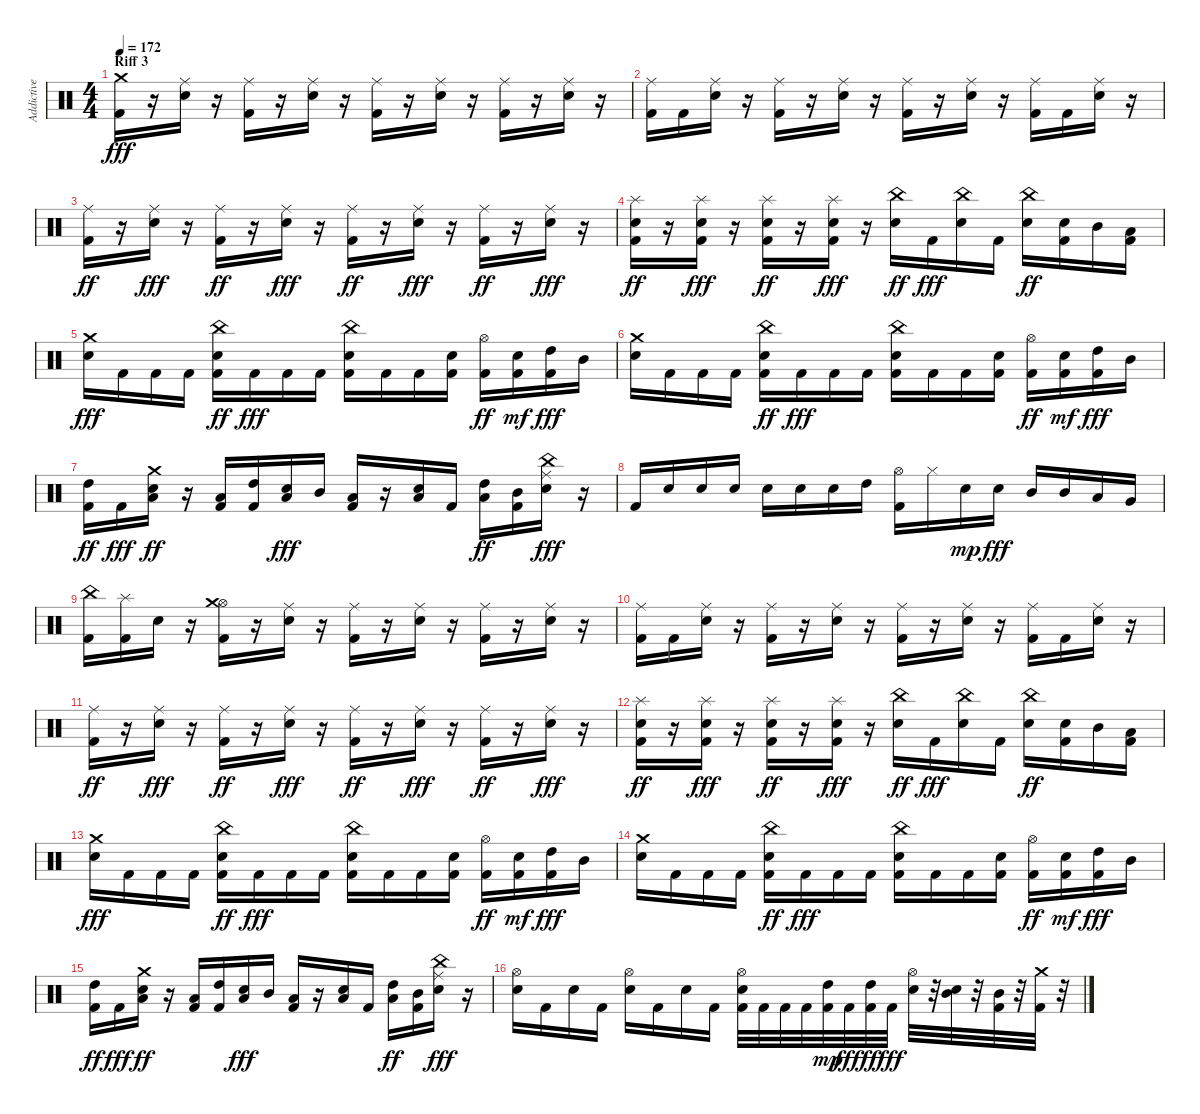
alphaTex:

\track ("Addictive" "Addictive") {instrument percussion}
\staff {score}
\articulation defaults
\ts (4 4)
\section ("" "Riff 3")
\tempo 172
\clef neutral
\ks c
("Kick (hit) 2" "Crash medium (hit)").16{dy fff} r.16 ("Snare (hit) 2" "Ride (middle)").16 r.16 ("Kick (hit) 2" "Ride (middle)").16 r.16 ("Snare (hit) 2" "Ride (middle)").16 r.16 ("Kick (hit) 2" "Ride (middle)").16 r.16 ("Snare (hit) 2" "Ride (middle)").16 r.16 ("Kick (hit) 2" "Ride (middle)").16 r.16 ("Snare (hit) 2" "Ride (middle)").16 r.16 |
("Kick (hit) 2" "Ride (middle)").16 "Kick (hit) 2".16 ("Snare (hit) 2" "Ride (middle)").16 r.16 ("Kick (hit) 2" "Ride (middle)").16 r.16 ("Snare (hit) 2" "Ride (middle)").16 r.16 ("Kick (hit) 2" "Ride (middle)").16 r.16 ("Snare (hit) 2" "Ride (middle)").16 r.16 ("Kick (hit) 2" "Ride (middle)").16 "Kick (hit) 2".16 ("Snare (hit) 2" "Ride (middle)").16 r.16 |
("Kick (hit) 2" "Ride (middle)").16{dy ff} r.16 ("Snare (hit) 2" "Ride (middle)").16{dy fff} r.16 ("Kick (hit) 2" "Ride (middle)").16{dy ff} r.16 ("Snare (hit) 2" "Ride (middle)").16{dy fff} r.16 ("Kick (hit) 2" "Ride (middle)").16{dy ff} r.16 ("Snare (hit) 2" "Ride (middle)").16{dy fff} r.16 ("Kick (hit) 2" "Ride (middle)").16{dy ff} r.16 ("Snare (hit) 2" "Ride (middle)").16{dy fff} r.16 |
("Kick (hit) 2" "Snare (hit) 2" "Splash (hit)").16{dy ff} r.16 ("Kick (hit) 2" "Snare (hit) 2" "Splash (hit)").16{dy fff} r.16 ("Kick (hit) 2" "Snare (hit) 2" "Splash (hit)").16{dy ff} r.16 ("Kick (hit) 2" "Snare (hit) 2" "Splash (hit)").16{dy fff} r.16 ("Snare (hit) 2" "China (hit)").16{dy ff} "Kick (hit) 2".16{dy fff} ("Snare (hit) 2" "China (hit)").16 "Kick (hit) 2".16 ("Snare (hit) 2" "China (hit)").16{dy ff} ("Kick (hit) 2" "Snare (hit) 2").16 "Mid Tom (hit)".16 ("Kick (hit) 2" "Low Tom (hit)").16 |
("Snare (hit) 2" "Crash medium (hit)").16{dy fff} "Kick (hit) 2".16 "Kick (hit) 2".16 "Kick (hit) 2".16 ("Kick (hit) 2" "Snare (hit) 2" "China (hit)").16{dy ff} "Kick (hit) 2".16{dy fff} "Kick (hit) 2".16 "Kick (hit) 2".16 ("Kick (hit) 2" "Snare (hit) 2" "China (hit)").16 "Kick (hit) 2".16 "Kick (hit) 2".16 ("Kick (hit) 2" "Snare (hit) 2").16 ("Kick (hit) 2" "Hi-Hat (open)").16{dy ff} ("Kick (hit) 2" "Snare (hit) 2").16{dy mf} ("Kick (hit) 2" "High Tom (hit)").16{dy fff} "Mid Tom (hit)".16 |
("Snare (hit) 2" "Crash medium (hit)").16 "Kick (hit) 2".16 "Kick (hit) 2".16 "Kick (hit) 2".16 ("Kick (hit) 2" "Snare (hit) 2" "China (hit)").16{dy ff} "Kick (hit) 2".16{dy fff} "Kick (hit) 2".16 "Kick (hit) 2".16 ("Kick (hit) 2" "Snare (hit) 2" "China (hit)").16 "Kick (hit) 2".16 "Kick (hit) 2".16 ("Kick (hit) 2" "Snare (hit) 2").16 ("Kick (hit) 2" "Hi-Hat (open)").16{dy ff} ("Kick (hit) 2" "Snare (hit) 2").16{dy mf} ("Kick (hit) 2" "High Tom (hit)").16{dy fff} "Mid Tom (hit)".16 |
("Kick (hit) 2" "High Tom (hit)").16{dy ff} "Kick (hit) 2".16{dy fff} ("Snare (hit) 2" "Low Tom (hit)" "Crash medium (hit)").16{dy ff} r.16 ("Kick (hit) 2" "Low Tom (hit)").16 ("Kick (hit) 2" "High Tom (hit)").16 ("Snare (hit) 2" "Low Tom (hit)").16{dy fff} "Mid Tom (hit)".16 ("Kick (hit) 2" "Low Tom (hit)").16 r.16 ("Snare (hit) 2" "Low Tom (hit)").16 "Kick (hit) 2".16 ("Low Tom (hit)" "High Tom (hit)").16{dy ff} ("Kick (hit) 2" "Mid Tom (hit)").16 ("Snare (hit) 2" "Ride (middle)" "China (hit)").16{dy fff} r.16 |
"Kick (hit) 2".16 "Snare (hit) 2".16 "Snare (hit) 2".16 "Snare (hit) 2".16 "Snare (hit) 2".16 "Snare (hit) 2".16 "Snare (hit) 2".16 "High Tom (hit)".16 ("Kick (hit) 2" "Hi-Hat (open)").16 "Hi-Hat (closed)".16 "Snare (hit) 2".16{dy mp} "Snare (hit) 2".16{dy fff} "Mid Tom (hit)".16 "Mid Tom (hit)".16 "Low Tom (hit)".16 "Very Low Tom (hit)".16 |
("Kick (hit) 2" "China (hit)").16 ("Kick (hit) 2" "Splash (hit)").16 "Snare (hit) 2".16 r.16 ("Kick (hit) 2" "Hi-Hat (open)" "Crash medium (hit)").16 r.16 ("Snare (hit) 2" "Ride (middle)").16 r.16 ("Kick (hit) 2" "Ride (middle)").16 r.16 ("Snare (hit) 2" "Ride (middle)").16 r.16 ("Kick (hit) 2" "Ride (middle)").16 r.16 ("Snare (hit) 2" "Ride (middle)").16 r.16 |
("Kick (hit) 2" "Ride (middle)").16 "Kick (hit) 2".16 ("Snare (hit) 2" "Ride (middle)").16 r.16 ("Kick (hit) 2" "Ride (middle)").16 r.16 ("Snare (hit) 2" "Ride (middle)").16 r.16 ("Kick (hit) 2" "Ride (middle)").16 r.16 ("Snare (hit) 2" "Ride (middle)").16 r.16 ("Kick (hit) 2" "Ride (middle)").16 "Kick (hit) 2".16 ("Snare (hit) 2" "Ride (middle)").16 r.16 |
("Kick (hit) 2" "Ride (middle)").16{dy ff} r.16 ("Snare (hit) 2" "Ride (middle)").16{dy fff} r.16 ("Kick (hit) 2" "Ride (middle)").16{dy ff} r.16 ("Snare (hit) 2" "Ride (middle)").16{dy fff} r.16 ("Kick (hit) 2" "Ride (middle)").16{dy ff} r.16 ("Snare (hit) 2" "Ride (middle)").16{dy fff} r.16 ("Kick (hit) 2" "Ride (middle)").16{dy ff} r.16 ("Snare (hit) 2" "Ride (middle)").16{dy fff} r.16 |
("Kick (hit) 2" "Snare (hit) 2" "Splash (hit)").16{dy ff} r.16 ("Kick (hit) 2" "Snare (hit) 2" "Splash (hit)").16{dy fff} r.16 ("Kick (hit) 2" "Snare (hit) 2" "Splash (hit)").16{dy ff} r.16 ("Kick (hit) 2" "Snare (hit) 2" "Splash (hit)").16{dy fff} r.16 ("Snare (hit) 2" "China (hit)").16{dy ff} "Kick (hit) 2".16{dy fff} ("Snare (hit) 2" "China (hit)").16 "Kick (hit) 2".16 ("Snare (hit) 2" "China (hit)").16{dy ff} ("Kick (hit) 2" "Snare (hit) 2").16 "Mid Tom (hit)".16 ("Kick (hit) 2" "Low Tom (hit)").16 |
("Snare (hit) 2" "Crash medium (hit)").16{dy fff} "Kick (hit) 2".16 "Kick (hit) 2".16 "Kick (hit) 2".16 ("Kick (hit) 2" "Snare (hit) 2" "China (hit)").16{dy ff} "Kick (hit) 2".16{dy fff} "Kick (hit) 2".16 "Kick (hit) 2".16 ("Kick (hit) 2" "Snare (hit) 2" "China (hit)").16 "Kick (hit) 2".16 "Kick (hit) 2".16 ("Kick (hit) 2" "Snare (hit) 2").16 ("Kick (hit) 2" "Hi-Hat (open)").16{dy ff} ("Kick (hit) 2" "Snare (hit) 2").16{dy mf} ("Kick (hit) 2" "High Tom (hit)").16{dy fff} "Mid Tom (hit)".16 |
("Snare (hit) 2" "Crash medium (hit)").16 "Kick (hit) 2".16 "Kick (hit) 2".16 "Kick (hit) 2".16 ("Kick (hit) 2" "Snare (hit) 2" "China (hit)").16{dy ff} "Kick (hit) 2".16{dy fff} "Kick (hit) 2".16 "Kick (hit) 2".16 ("Kick (hit) 2" "Snare (hit) 2" "China (hit)").16 "Kick (hit) 2".16 "Kick (hit) 2".16 ("Kick (hit) 2" "Snare (hit) 2").16 ("Kick (hit) 2" "Hi-Hat (open)").16{dy ff} ("Kick (hit) 2" "Snare (hit) 2").16{dy mf} ("Kick (hit) 2" "High Tom (hit)").16{dy fff} "Mid Tom (hit)".16 |
("Kick (hit) 2" "High Tom (hit)").16{dy ff} "Kick (hit) 2".16{dy fff} ("Snare (hit) 2" "Low Tom (hit)" "Crash medium (hit)").16{dy ff} r.16 ("Kick (hit) 2" "Low Tom (hit)").16 ("Kick (hit) 2" "High Tom (hit)").16 ("Snare (hit) 2" "Low Tom (hit)").16{dy fff} "Mid Tom (hit)".16 ("Kick (hit) 2" "Low Tom (hit)").16 r.16 ("Snare (hit) 2" "Low Tom (hit)").16 "Kick (hit) 2".16 ("Low Tom (hit)" "High Tom (hit)").16{dy ff} ("Kick (hit) 2" "Mid Tom (hit)").16 ("Snare (hit) 2" "Ride (middle)" "China (hit)").16{dy fff} r.16 |
("Snare (hit) 2" "Hi-Hat (open)").16 "Kick (hit) 2".16 "Snare (hit) 2".16 "Kick (hit) 2".16 ("Snare (hit) 2" "Hi-Hat (open)").16 "Kick (hit) 2".16 "Snare (hit) 2".16 "Kick (hit) 2".16 ("Kick (hit) 2" "Snare (hit) 2" "Hi-Hat (open)").32 "Kick (hit) 2".32 "Kick (hit) 2".32 "Kick (hit) 2".32 ("Kick (hit) 2" "High Tom (hit)").32{dy mp} "Kick (hit) 2".32{dy fff} ("Kick (hit) 2" "High Tom (hit)").32{dy ff} "Kick (hit) 2".32{dy fff} ("Snare (hit) 2" "Hi-Hat (open)").32 r.32 ("Snare (hit) 2" "Mid Tom (hit)").32 r.32 ("Kick (hit) 2" "Mid Tom (hit)").32 r.32 ("Kick (hit) 2" "Crash medium (hit)").32 r.32
